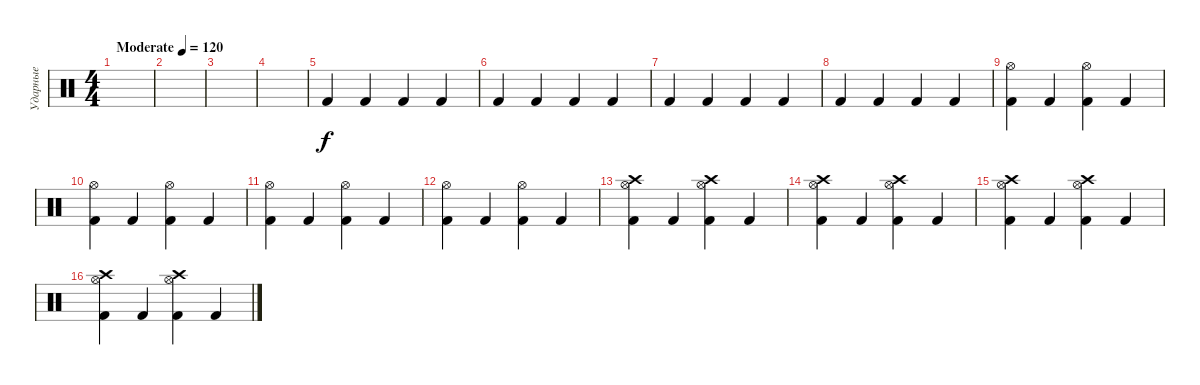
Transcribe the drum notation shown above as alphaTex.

\track ("Ударные" "Ударные") {instrument percussion}
\staff {score}
\articulation defaults
\ts (4 4)
\tempo (120 "Moderate")
\clef neutral
\ks c
|
|
|
|
"Kick (hit) 2".4 "Kick (hit) 2".4 "Kick (hit) 2".4 "Kick (hit) 2".4 |
"Kick (hit) 2".4 "Kick (hit) 2".4 "Kick (hit) 2".4 "Kick (hit) 2".4 |
"Kick (hit) 2".4 "Kick (hit) 2".4 "Kick (hit) 2".4 "Kick (hit) 2".4 |
"Kick (hit) 2".4 "Kick (hit) 2".4 "Kick (hit) 2".4 "Kick (hit) 2".4 |
("Kick (hit) 2" "Hi-Hat (open)").4 "Kick (hit) 2".4 ("Kick (hit) 2" "Hi-Hat (open)").4 "Kick (hit) 2".4 |
("Kick (hit) 2" "Hi-Hat (open)").4 "Kick (hit) 2".4 ("Kick (hit) 2" "Hi-Hat (open)").4 "Kick (hit) 2".4 |
("Kick (hit) 2" "Hi-Hat (open)").4 "Kick (hit) 2".4 ("Kick (hit) 2" "Hi-Hat (open)").4 "Kick (hit) 2".4 |
("Kick (hit) 2" "Hi-Hat (open)").4 "Kick (hit) 2".4 ("Kick (hit) 2" "Hi-Hat (open)").4 "Kick (hit) 2".4 |
("Kick (hit) 2" "Hi-Hat (open)" "Crash high (hit)").4 "Kick (hit) 2".4 ("Kick (hit) 2" "Hi-Hat (open)" "Crash high (hit)").4 "Kick (hit) 2".4 |
("Kick (hit) 2" "Hi-Hat (open)" "Crash high (hit)").4 "Kick (hit) 2".4 ("Kick (hit) 2" "Hi-Hat (open)" "Crash high (hit)").4 "Kick (hit) 2".4 |
("Kick (hit) 2" "Hi-Hat (open)" "Crash high (hit)").4 "Kick (hit) 2".4 ("Kick (hit) 2" "Hi-Hat (open)" "Crash high (hit)").4 "Kick (hit) 2".4 |
("Kick (hit) 2" "Hi-Hat (open)" "Crash high (hit)").4 "Kick (hit) 2".4 ("Kick (hit) 2" "Hi-Hat (open)" "Crash high (hit)").4 "Kick (hit) 2".4
